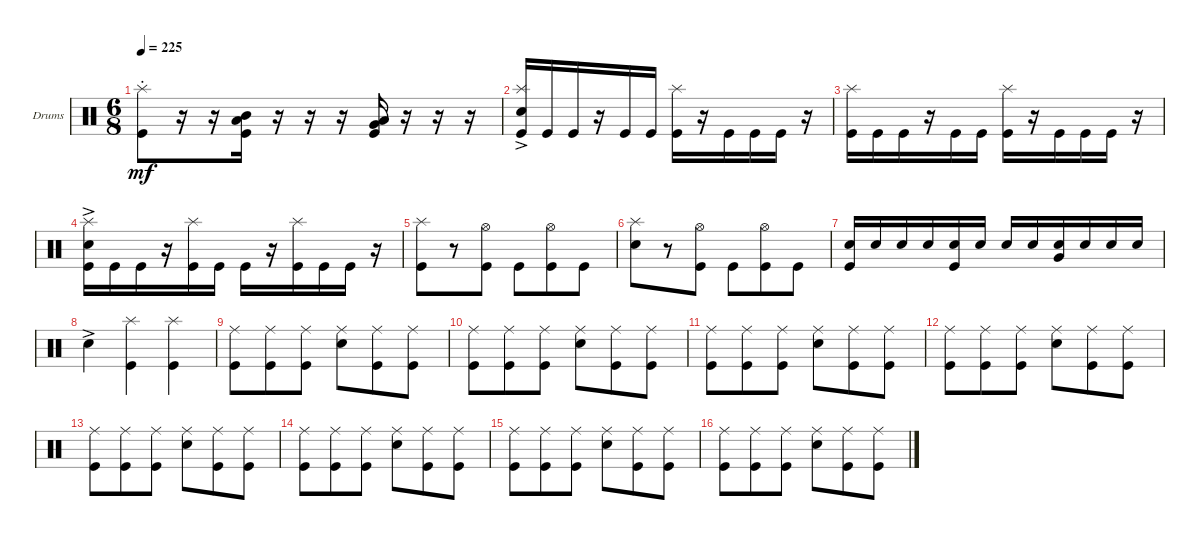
\bracketExtendMode groupsimilarinstruments
\firstSystemTrackNameOrientation horizontal
\otherSystemsTrackNameOrientation horizontal
\track ("Drumkit" "Drums") {instrument percussion}
\staff {score}
\articulation defaults
\ts (6 8)
\tempo 225
\clef neutral
\ks c
("Kick (hit)" "Splash (hit)"{st}).8{dy mf} r.16 r.16 ("Kick (hit)" "Mid Tom (hit)" "Low Tom (hit)").16 r.16 r.16 r.16 ("Kick (hit)" "Very Low Tom (hit)" "Low Tom (hit)").16 r.16 r.16 r.16 |
("Snare (hit) 2"{ac} "Kick (hit)" "Splash (hit)").16 "Kick (hit)".16 "Kick (hit)".16 r.16 "Kick (hit)".16 "Kick (hit)".16 ("Kick (hit)" "Splash (hit)").16 r.16 "Kick (hit)".16 "Kick (hit)".16 "Kick (hit)".16 r.16 |
("Kick (hit)" "Splash (hit)").16 "Kick (hit)".16 "Kick (hit)".16 r.16 "Kick (hit)".16 "Kick (hit)".16 ("Kick (hit)" "Splash (hit)").16 r.16 "Kick (hit)".16 "Kick (hit)".16 "Kick (hit)".16 r.16 |
("Snare (hit) 2"{ac} "Kick (hit)" "Splash (hit)").16 "Kick (hit)".16 "Kick (hit)".16 r.16 ("Kick (hit)" "Splash (hit)").16 "Kick (hit)".16 "Kick (hit)".16 r.16 ("Kick (hit)" "Splash (hit)").16 "Kick (hit)".16 "Kick (hit)".16 r.16 |
("Kick (hit)" "Splash (hit)").8 r.8 ("Kick (hit)" "Hi-Hat (open)").8 "Kick (hit)".8 ("Kick (hit)" "Hi-Hat (open)").8 "Kick (hit)".8 |
("Snare (hit) 2" "Splash (hit)").8 r.8 ("Kick (hit)" "Hi-Hat (open)").8 "Kick (hit)".8 ("Kick (hit)" "Hi-Hat (open)").8 "Kick (hit)".8 |
("Snare (hit) 2" "Kick (hit)").16 "Snare (hit) 2".16 "Snare (hit) 2".16 "Snare (hit) 2".16 ("Snare (hit) 2" "Kick (hit)").16 "Snare (hit) 2".16 "Snare (hit) 2".16 "Snare (hit) 2".16 ("Snare (hit) 2" "Very Low Tom (hit)").16 "Snare (hit) 2".16 "Snare (hit) 2".16 "Snare (hit) 2".16 |
"Snare (hit) 2"{ac}.4 ("Kick (hit)" "Splash (hit)").4 ("Kick (hit)" "Splash (hit)").4 |
("Kick (hit)" "Ride (middle)").8 ("Kick (hit)" "Ride (middle)").8 ("Kick (hit)" "Ride (middle)").8 ("Snare (hit) 2" "Ride (middle)").8 ("Kick (hit)" "Ride (middle)").8 ("Kick (hit)" "Ride (middle)").8 |
("Kick (hit)" "Ride (middle)").8 ("Kick (hit)" "Ride (middle)").8 ("Kick (hit)" "Ride (middle)").8 ("Snare (hit) 2" "Ride (middle)").8 ("Kick (hit)" "Ride (middle)").8 ("Kick (hit)" "Ride (middle)").8 |
("Kick (hit)" "Ride (middle)").8 ("Kick (hit)" "Ride (middle)").8 ("Kick (hit)" "Ride (middle)").8 ("Snare (hit) 2" "Ride (middle)").8 ("Kick (hit)" "Ride (middle)").8 ("Kick (hit)" "Ride (middle)").8 |
("Kick (hit)" "Ride (middle)").8 ("Kick (hit)" "Ride (middle)").8 ("Kick (hit)" "Ride (middle)").8 ("Snare (hit) 2" "Ride (middle)").8 ("Kick (hit)" "Ride (middle)").8 ("Kick (hit)" "Ride (middle)").8 |
("Kick (hit)" "Ride (middle)").8 ("Kick (hit)" "Ride (middle)").8 ("Kick (hit)" "Ride (middle)").8 ("Snare (hit) 2" "Ride (middle)").8 ("Kick (hit)" "Ride (middle)").8 ("Kick (hit)" "Ride (middle)").8 |
("Kick (hit)" "Ride (middle)").8 ("Kick (hit)" "Ride (middle)").8 ("Kick (hit)" "Ride (middle)").8 ("Snare (hit) 2" "Ride (middle)").8 ("Kick (hit)" "Ride (middle)").8 ("Kick (hit)" "Ride (middle)").8 |
("Kick (hit)" "Ride (middle)").8 ("Kick (hit)" "Ride (middle)").8 ("Kick (hit)" "Ride (middle)").8 ("Snare (hit) 2" "Ride (middle)").8 ("Kick (hit)" "Ride (middle)").8 ("Kick (hit)" "Ride (middle)").8 |
("Kick (hit)" "Ride (middle)").8 ("Kick (hit)" "Ride (middle)").8 ("Kick (hit)" "Ride (middle)").8 ("Snare (hit) 2" "Ride (middle)").8 ("Kick (hit)" "Ride (middle)").8 ("Kick (hit)" "Ride (middle)").8
